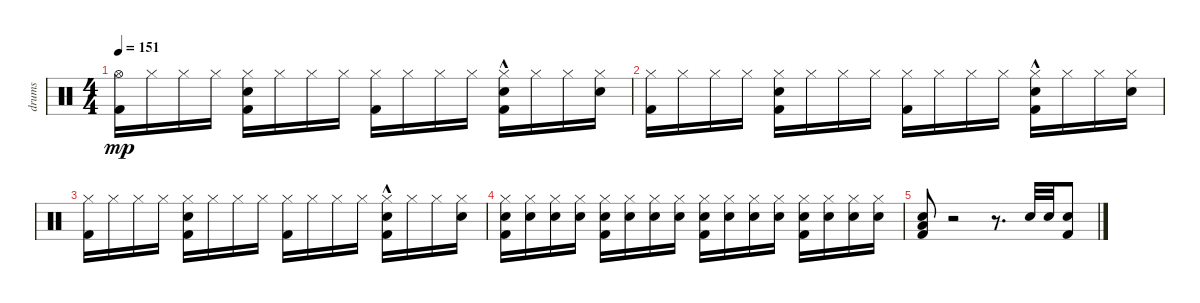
\track ("drums" "drums") {instrument percussion}
\staff {score}
\articulation defaults
\ts (4 4)
\tempo 151
\clef neutral
\ks c
("Hi-Hat (open)" "Kick (hit) 2").16{dy mp} "Hi-Hat (closed)".16 "Hi-Hat (closed)".16 "Hi-Hat (closed)".16 ("Hi-Hat (closed)" "Kick (hit) 2" "Snare (hit) 2").16 "Hi-Hat (closed)".16 "Hi-Hat (closed)".16 "Hi-Hat (closed)".16 ("Hi-Hat (closed)" "Kick (hit) 2").16 "Hi-Hat (closed)".16 "Hi-Hat (closed)".16 "Hi-Hat (closed)".16 ("Hi-Hat (closed)" "Kick (hit) 2"{hac} "Snare (hit) 2"{hac}).16 "Hi-Hat (closed)".16 "Hi-Hat (closed)".16 ("Hi-Hat (closed)" "Snare (hit) 2").16 |
("Hi-Hat (closed)" "Kick (hit) 2").16 "Hi-Hat (closed)".16 "Hi-Hat (closed)".16 "Hi-Hat (closed)".16 ("Hi-Hat (closed)" "Kick (hit) 2" "Snare (hit) 2").16 "Hi-Hat (closed)".16 "Hi-Hat (closed)".16 "Hi-Hat (closed)".16 ("Hi-Hat (closed)" "Kick (hit) 2").16 "Hi-Hat (closed)".16 "Hi-Hat (closed)".16 "Hi-Hat (closed)".16 ("Hi-Hat (closed)" "Kick (hit) 2"{hac} "Snare (hit) 2"{hac}).16 "Hi-Hat (closed)".16 "Hi-Hat (closed)".16 ("Hi-Hat (closed)" "Snare (hit) 2").16 |
("Hi-Hat (closed)" "Kick (hit) 2").16 "Hi-Hat (closed)".16 "Hi-Hat (closed)".16 "Hi-Hat (closed)".16 ("Hi-Hat (closed)" "Kick (hit) 2" "Snare (hit) 2").16 "Hi-Hat (closed)".16 "Hi-Hat (closed)".16 "Hi-Hat (closed)".16 ("Hi-Hat (closed)" "Kick (hit) 2").16 "Hi-Hat (closed)".16 "Hi-Hat (closed)".16 "Hi-Hat (closed)".16 ("Hi-Hat (closed)" "Kick (hit) 2"{hac} "Snare (hit) 2"{hac}).16 "Hi-Hat (closed)".16 "Hi-Hat (closed)".16 ("Hi-Hat (closed)" "Snare (hit) 2").16 |
("Hi-Hat (closed)" "Kick (hit) 2" "Snare (hit) 2").16 ("Hi-Hat (closed)" "Snare (hit) 2").16 ("Hi-Hat (closed)" "Snare (hit) 2").16 ("Hi-Hat (closed)" "Snare (hit) 2").16 ("Hi-Hat (closed)" "Kick (hit) 2" "Snare (hit) 2").16 ("Hi-Hat (closed)" "Snare (hit) 2").16 ("Hi-Hat (closed)" "Snare (hit) 2").16 ("Hi-Hat (closed)" "Snare (hit) 2").16 ("Hi-Hat (closed)" "Kick (hit) 2" "Snare (hit) 2").16 ("Hi-Hat (closed)" "Snare (hit) 2").16 ("Hi-Hat (closed)" "Snare (hit) 2").16 ("Hi-Hat (closed)" "Snare (hit) 2").16 ("Hi-Hat (closed)" "Kick (hit) 2" "Snare (hit) 2").16 ("Hi-Hat (closed)" "Snare (hit) 2").16 ("Hi-Hat (closed)" "Snare (hit) 2").16 ("Hi-Hat (closed)" "Snare (hit) 2").16 |
("Low Floor Tom (hit)" "Kick (hit) 2" "Snare (hit) 2").8 r.2 r.8{d} "Snare (hit) 2".32 "Snare (hit) 2".32 ("Kick (hit) 2" "Snare (hit) 2").8
